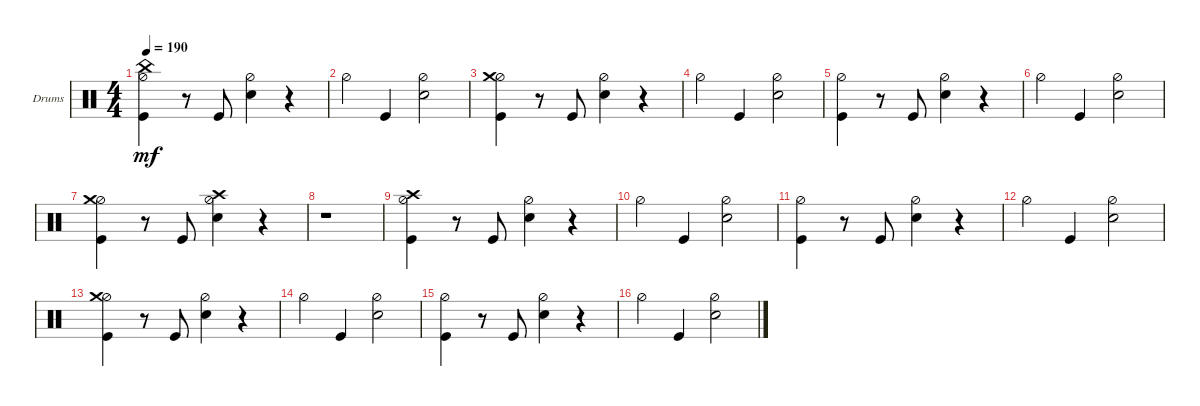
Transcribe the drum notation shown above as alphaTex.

\defaultSystemsLayout 4
\bracketExtendMode groupsimilarinstruments
\firstSystemTrackNameOrientation horizontal
\otherSystemsTrackNameOrientation horizontal
\track ("Drumkit" "Drums") {instrument percussion}
\staff {score}
\articulation defaults
\ts (4 4)
\tempo 190
\clef neutral
\ks c
("Hi-Hat (half)" "Kick (hit)" "China (hit)").4{dy mf} r.8 "Kick (hit)".8 ("Hi-Hat (half)" "Snare (hit) 2").4 r.4 |
"Hi-Hat (half)".4 "Kick (hit)".4 ("Snare (hit) 2" "Hi-Hat (half)").2 |
("Hi-Hat (half)" "Kick (hit)" "Crash medium (hit)").4 r.8 "Kick (hit)".8 ("Hi-Hat (half)" "Snare (hit) 2").4 r.4 |
"Hi-Hat (half)".4 "Kick (hit)".4 ("Snare (hit) 2" "Hi-Hat (half)").2 |
("Hi-Hat (half)" "Kick (hit)").4 r.8 "Kick (hit)".8 ("Hi-Hat (half)" "Snare (hit) 2").4 r.4 |
"Hi-Hat (half)".4 "Kick (hit)".4 ("Snare (hit) 2" "Hi-Hat (half)").2 |
("Hi-Hat (half)" "Kick (hit)" "Crash medium (hit)").4 r.8 "Kick (hit)".8 ("Hi-Hat (half)" "Snare (hit) 2" "Crash high (hit)").4 r.4 |
r.1 |
("Hi-Hat (half)" "Kick (hit)" "Crash high (hit)").4 r.8 "Kick (hit)".8 ("Hi-Hat (half)" "Snare (hit) 2").4 r.4 |
"Hi-Hat (half)".4 "Kick (hit)".4 ("Snare (hit) 2" "Hi-Hat (half)").2 |
("Hi-Hat (half)" "Kick (hit)").4 r.8 "Kick (hit)".8 ("Hi-Hat (half)" "Snare (hit) 2").4 r.4 |
"Hi-Hat (half)".4 "Kick (hit)".4 ("Snare (hit) 2" "Hi-Hat (half)").2 |
("Hi-Hat (half)" "Kick (hit)" "Crash medium (hit)").4 r.8 "Kick (hit)".8 ("Hi-Hat (half)" "Snare (hit) 2").4 r.4 |
"Hi-Hat (half)".4 "Kick (hit)".4 ("Snare (hit) 2" "Hi-Hat (half)").2 |
("Hi-Hat (half)" "Kick (hit)").4 r.8 "Kick (hit)".8 ("Hi-Hat (half)" "Snare (hit) 2").4 r.4 |
"Hi-Hat (half)".4 "Kick (hit)".4 ("Snare (hit) 2" "Hi-Hat (half)").2
